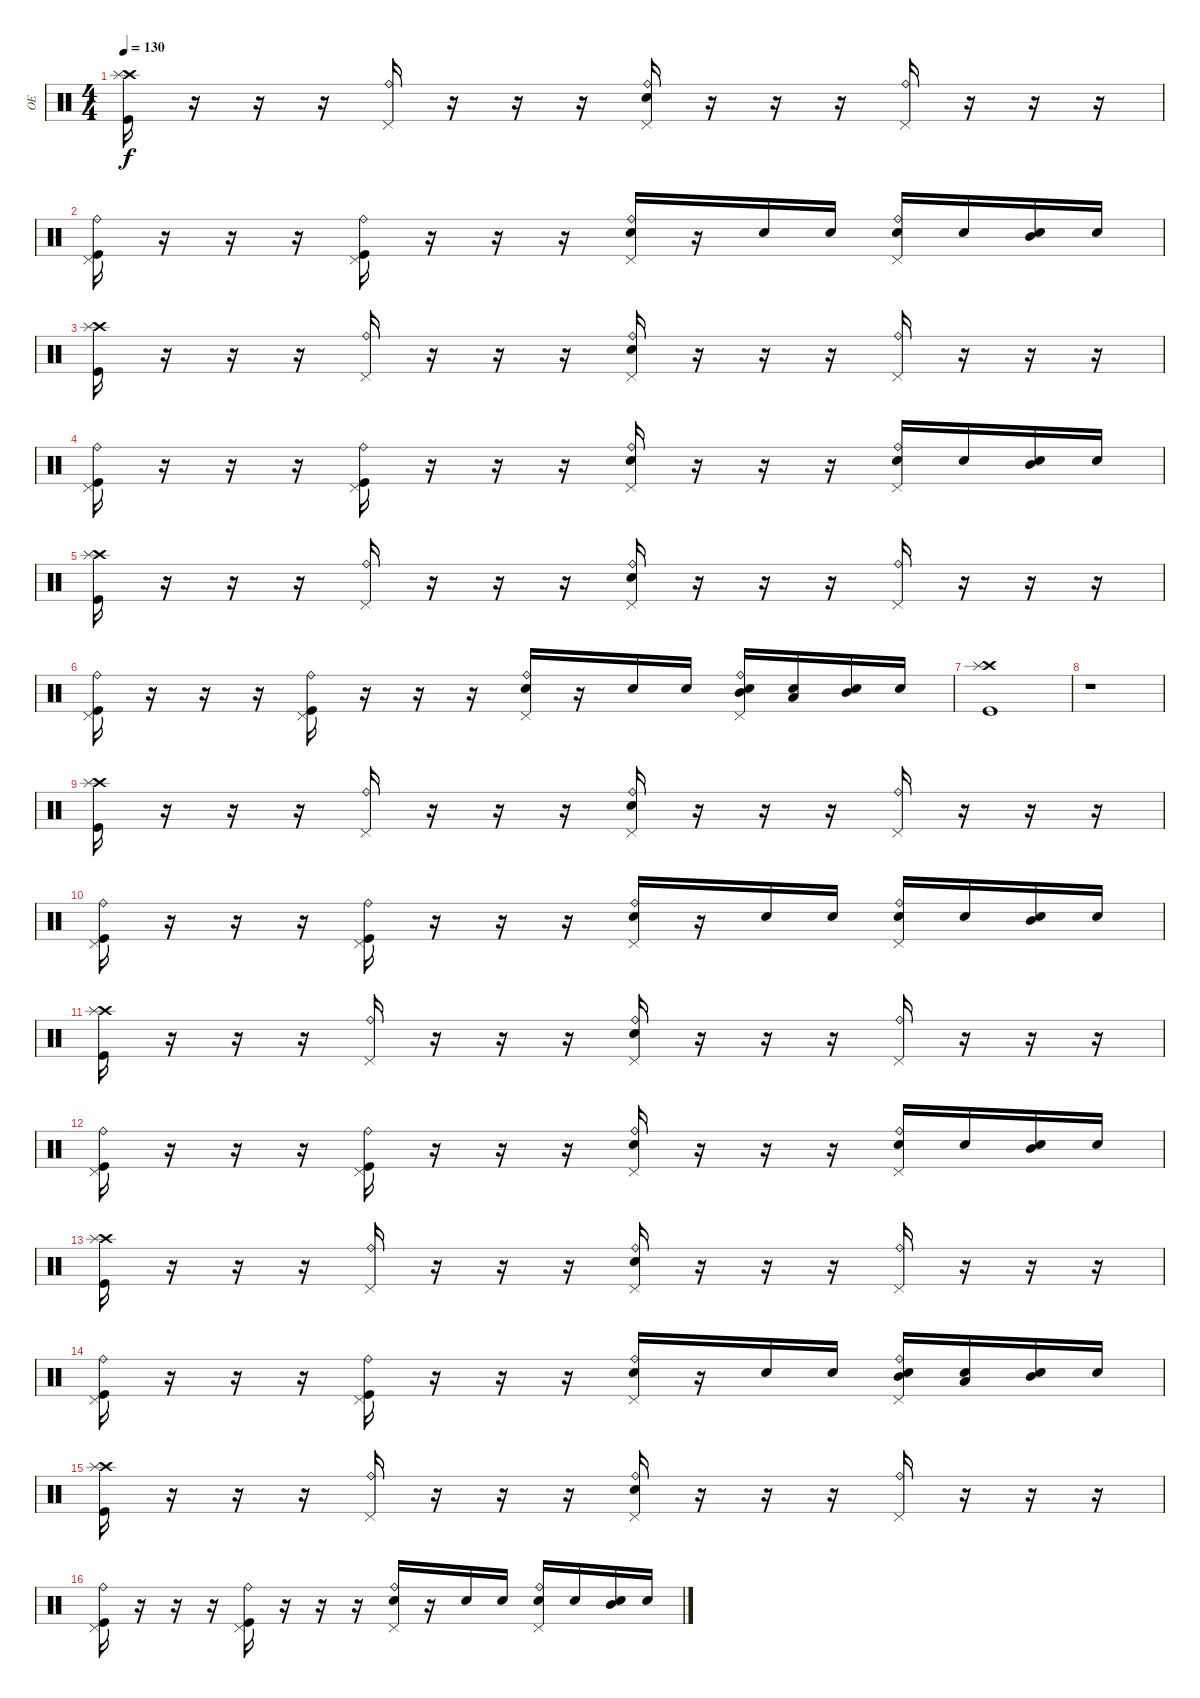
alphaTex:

\track ("OE" "OE") {instrument percussion}
\staff {score}
\articulation defaults
\ts (4 4)
\tempo 130
\clef neutral
\ks c
("Crash high (hit)" "Kick (hit)" "Splash (hit)").16{dy f} r.16 r.16 r.16 ("Pedal Hi-Hat (hit)" "Ride (bell)").16 r.16 r.16 r.16 ("Pedal Hi-Hat (hit)" "Ride (bell)" "Snare (hit) 2").16 r.16 r.16 r.16 ("Pedal Hi-Hat (hit)" "Ride (bell)").16 r.16 r.16 r.16 |
("Pedal Hi-Hat (hit)" "Ride (bell)" "Kick (hit)").16 r.16 r.16 r.16 ("Pedal Hi-Hat (hit)" "Kick (hit)" "Ride (bell)").16 r.16 r.16 r.16 ("Pedal Hi-Hat (hit)" "Snare (hit) 2" "Ride (bell)").16 r.16 "Snare (hit) 2".16 "Snare (hit) 2".16 ("Pedal Hi-Hat (hit)" "Ride (bell)" "Snare (hit) 2").16 "Snare (hit) 2".16 ("Snare (hit) 2" "Mid Tom (hit)").16 "Snare (hit) 2".16 |
("Crash high (hit)" "Kick (hit)" "Splash (hit)").16 r.16 r.16 r.16 ("Pedal Hi-Hat (hit)" "Ride (bell)").16 r.16 r.16 r.16 ("Pedal Hi-Hat (hit)" "Ride (bell)" "Snare (hit) 2").16 r.16 r.16 r.16 ("Pedal Hi-Hat (hit)" "Ride (bell)").16 r.16 r.16 r.16 |
("Pedal Hi-Hat (hit)" "Ride (bell)" "Kick (hit)").16 r.16 r.16 r.16 ("Pedal Hi-Hat (hit)" "Kick (hit)" "Ride (bell)").16 r.16 r.16 r.16 ("Pedal Hi-Hat (hit)" "Snare (hit) 2" "Ride (bell)").16 r.16 r.16 r.16 ("Pedal Hi-Hat (hit)" "Ride (bell)" "Snare (hit) 2").16 "Snare (hit) 2".16 ("Snare (hit) 2" "Mid Tom (hit)").16 "Snare (hit) 2".16 |
("Crash high (hit)" "Kick (hit)" "Splash (hit)").16 r.16 r.16 r.16 ("Pedal Hi-Hat (hit)" "Ride (bell)").16 r.16 r.16 r.16 ("Pedal Hi-Hat (hit)" "Ride (bell)" "Snare (hit) 2").16 r.16 r.16 r.16 ("Pedal Hi-Hat (hit)" "Ride (bell)").16 r.16 r.16 r.16 |
("Pedal Hi-Hat (hit)" "Ride (bell)" "Kick (hit)").16 r.16 r.16 r.16 ("Pedal Hi-Hat (hit)" "Kick (hit)" "Ride (bell)").16 r.16 r.16 r.16 ("Pedal Hi-Hat (hit)" "Snare (hit) 2" "Ride (bell)").16 r.16 "Snare (hit) 2".16 "Snare (hit) 2".16 ("Pedal Hi-Hat (hit)" "Ride (bell)" "Snare (hit) 2" "Mid Tom (hit)").16 ("Snare (hit) 2" "Low Tom (hit)").16 ("Snare (hit) 2" "Mid Tom (hit)").16 "Snare (hit) 2".16 |
("Crash high (hit)" "Kick (hit)" "Splash (hit)").1 |
r.1 |
("Crash high (hit)" "Kick (hit)" "Splash (hit)").16 r.16 r.16 r.16 ("Pedal Hi-Hat (hit)" "Ride (bell)").16 r.16 r.16 r.16 ("Pedal Hi-Hat (hit)" "Ride (bell)" "Snare (hit) 2").16 r.16 r.16 r.16 ("Pedal Hi-Hat (hit)" "Ride (bell)").16 r.16 r.16 r.16 |
("Pedal Hi-Hat (hit)" "Ride (bell)" "Kick (hit)").16 r.16 r.16 r.16 ("Pedal Hi-Hat (hit)" "Kick (hit)" "Ride (bell)").16 r.16 r.16 r.16 ("Pedal Hi-Hat (hit)" "Snare (hit) 2" "Ride (bell)").16 r.16 "Snare (hit) 2".16 "Snare (hit) 2".16 ("Pedal Hi-Hat (hit)" "Ride (bell)" "Snare (hit) 2").16 "Snare (hit) 2".16 ("Snare (hit) 2" "Mid Tom (hit)").16 "Snare (hit) 2".16 |
("Crash high (hit)" "Kick (hit)" "Splash (hit)").16 r.16 r.16 r.16 ("Pedal Hi-Hat (hit)" "Ride (bell)").16 r.16 r.16 r.16 ("Pedal Hi-Hat (hit)" "Ride (bell)" "Snare (hit) 2").16 r.16 r.16 r.16 ("Pedal Hi-Hat (hit)" "Ride (bell)").16 r.16 r.16 r.16 |
("Pedal Hi-Hat (hit)" "Ride (bell)" "Kick (hit)").16 r.16 r.16 r.16 ("Pedal Hi-Hat (hit)" "Kick (hit)" "Ride (bell)").16 r.16 r.16 r.16 ("Pedal Hi-Hat (hit)" "Snare (hit) 2" "Ride (bell)").16 r.16 r.16 r.16 ("Pedal Hi-Hat (hit)" "Ride (bell)" "Snare (hit) 2").16 "Snare (hit) 2".16 ("Snare (hit) 2" "Mid Tom (hit)").16 "Snare (hit) 2".16 |
("Crash high (hit)" "Kick (hit)" "Splash (hit)").16 r.16 r.16 r.16 ("Pedal Hi-Hat (hit)" "Ride (bell)").16 r.16 r.16 r.16 ("Pedal Hi-Hat (hit)" "Ride (bell)" "Snare (hit) 2").16 r.16 r.16 r.16 ("Pedal Hi-Hat (hit)" "Ride (bell)").16 r.16 r.16 r.16 |
("Pedal Hi-Hat (hit)" "Ride (bell)" "Kick (hit)").16 r.16 r.16 r.16 ("Pedal Hi-Hat (hit)" "Kick (hit)" "Ride (bell)").16 r.16 r.16 r.16 ("Pedal Hi-Hat (hit)" "Snare (hit) 2" "Ride (bell)").16 r.16 "Snare (hit) 2".16 "Snare (hit) 2".16 ("Pedal Hi-Hat (hit)" "Ride (bell)" "Snare (hit) 2" "Mid Tom (hit)").16 ("Snare (hit) 2" "Low Tom (hit)").16 ("Snare (hit) 2" "Mid Tom (hit)").16 "Snare (hit) 2".16 |
("Crash high (hit)" "Kick (hit)" "Splash (hit)").16 r.16 r.16 r.16 ("Pedal Hi-Hat (hit)" "Ride (bell)").16 r.16 r.16 r.16 ("Pedal Hi-Hat (hit)" "Ride (bell)" "Snare (hit) 2").16 r.16 r.16 r.16 ("Pedal Hi-Hat (hit)" "Ride (bell)").16 r.16 r.16 r.16 |
("Pedal Hi-Hat (hit)" "Ride (bell)" "Kick (hit)").16 r.16 r.16 r.16 ("Pedal Hi-Hat (hit)" "Kick (hit)" "Ride (bell)").16 r.16 r.16 r.16 ("Pedal Hi-Hat (hit)" "Snare (hit) 2" "Ride (bell)").16 r.16 "Snare (hit) 2".16 "Snare (hit) 2".16 ("Pedal Hi-Hat (hit)" "Ride (bell)" "Snare (hit) 2").16 "Snare (hit) 2".16 ("Snare (hit) 2" "Mid Tom (hit)").16 "Snare (hit) 2".16
